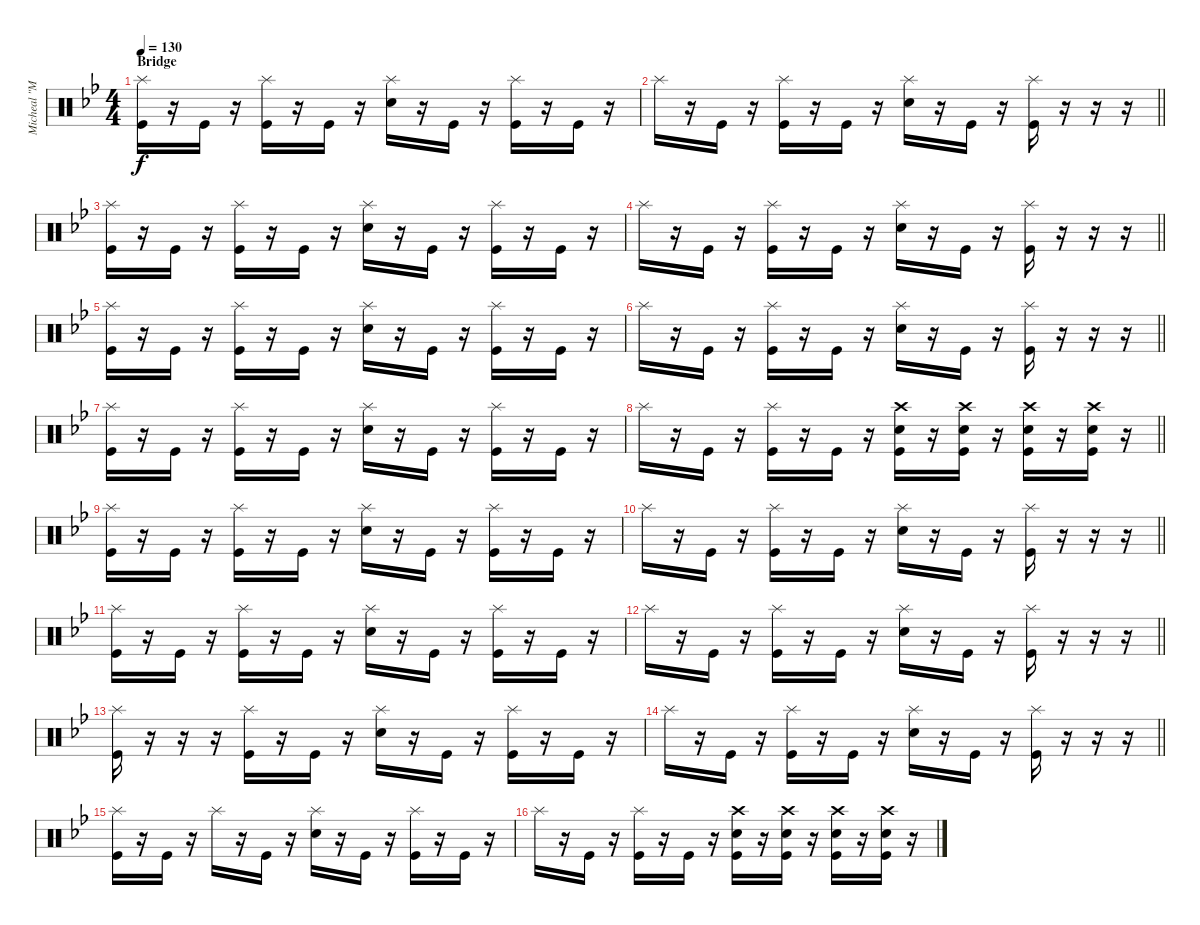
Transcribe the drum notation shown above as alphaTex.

\track ("Micheal \"Moose\" Thomas" "Micheal \"M") {instrument percussion}
\staff {score}
\articulation defaults
\ts (4 4)
\section ("" "Bridge")
\tempo 130
\clef neutral
\ks bb
("Splash (hit)" "Kick (hit)").16{dy f} r.16 "Kick (hit)".16 r.16 ("Splash (hit)" "Kick (hit)").16 r.16 "Kick (hit)".16 r.16 ("Splash (hit)" "Snare (hit) 2").16 r.16 "Kick (hit)".16 r.16 ("Splash (hit)" "Kick (hit)").16 r.16 "Kick (hit)".16 r.16 |
\barLineRight lightlight "Splash (hit)".16
r.16 "Kick (hit)".16 r.16 ("Splash (hit)" "Kick (hit)").16 r.16 "Kick (hit)".16 r.16 ("Splash (hit)" "Snare (hit) 2").16 r.16 "Kick (hit)".16 r.16 ("Splash (hit)" "Kick (hit)").16 r.16 r.16 r.16 |
("Splash (hit)" "Kick (hit)").16 r.16 "Kick (hit)".16 r.16 ("Splash (hit)" "Kick (hit)").16 r.16 "Kick (hit)".16 r.16 ("Splash (hit)" "Snare (hit) 2").16 r.16 "Kick (hit)".16 r.16 ("Splash (hit)" "Kick (hit)").16 r.16 "Kick (hit)".16 r.16 |
\barLineRight lightlight "Splash (hit)".16
r.16 "Kick (hit)".16 r.16 ("Splash (hit)" "Kick (hit)").16 r.16 "Kick (hit)".16 r.16 ("Splash (hit)" "Snare (hit) 2").16 r.16 "Kick (hit)".16 r.16 ("Splash (hit)" "Kick (hit)").16 r.16 r.16 r.16 |
("Splash (hit)" "Kick (hit)").16 r.16 "Kick (hit)".16 r.16 ("Splash (hit)" "Kick (hit)").16 r.16 "Kick (hit)".16 r.16 ("Splash (hit)" "Snare (hit) 2").16 r.16 "Kick (hit)".16 r.16 ("Splash (hit)" "Kick (hit)").16 r.16 "Kick (hit)".16 r.16 |
\barLineRight lightlight "Splash (hit)".16
r.16 "Kick (hit)".16 r.16 ("Splash (hit)" "Kick (hit)").16 r.16 "Kick (hit)".16 r.16 ("Splash (hit)" "Snare (hit) 2").16 r.16 "Kick (hit)".16 r.16 ("Splash (hit)" "Kick (hit)").16 r.16 r.16 r.16 |
("Splash (hit)" "Kick (hit)").16 r.16 "Kick (hit)".16 r.16 ("Splash (hit)" "Kick (hit)").16 r.16 "Kick (hit)".16 r.16 ("Splash (hit)" "Snare (hit) 2").16 r.16 "Kick (hit)".16 r.16 ("Splash (hit)" "Kick (hit)").16 r.16 "Kick (hit)".16 r.16 |
\barLineRight lightlight "Splash (hit)".16
r.16 "Kick (hit)".16 r.16 ("Splash (hit)" "Kick (hit)").16 r.16 "Kick (hit)".16 r.16 ("Crash high (hit)" "Snare (hit) 2" "Kick (hit)").16 r.16 ("Crash high (hit)" "Snare (hit) 2" "Kick (hit)").16 r.16 ("Crash high (hit)" "Snare (hit) 2" "Kick (hit)").16 r.16 ("Crash high (hit)" "Snare (hit) 2" "Kick (hit)").16 r.16 |
("Splash (hit)" "Kick (hit)").16 r.16 "Kick (hit)".16 r.16 ("Splash (hit)" "Kick (hit)").16 r.16 "Kick (hit)".16 r.16 ("Splash (hit)" "Snare (hit) 2").16 r.16 "Kick (hit)".16 r.16 ("Splash (hit)" "Kick (hit)").16 r.16 "Kick (hit)".16 r.16 |
\barLineRight lightlight "Splash (hit)".16
r.16 "Kick (hit)".16 r.16 ("Splash (hit)" "Kick (hit)").16 r.16 "Kick (hit)".16 r.16 ("Splash (hit)" "Snare (hit) 2").16 r.16 "Kick (hit)".16 r.16 ("Splash (hit)" "Kick (hit)").16 r.16 r.16 r.16 |
("Splash (hit)" "Kick (hit)").16 r.16 "Kick (hit)".16 r.16 ("Splash (hit)" "Kick (hit)").16 r.16 "Kick (hit)".16 r.16 ("Splash (hit)" "Snare (hit) 2").16 r.16 "Kick (hit)".16 r.16 ("Splash (hit)" "Kick (hit)").16 r.16 "Kick (hit)".16 r.16 |
\barLineRight lightlight "Splash (hit)".16
r.16 "Kick (hit)".16 r.16 ("Splash (hit)" "Kick (hit)").16 r.16 "Kick (hit)".16 r.16 ("Splash (hit)" "Snare (hit) 2").16 r.16 "Kick (hit)".16 r.16 ("Splash (hit)" "Kick (hit)").16 r.16 r.16 r.16 |
("Splash (hit)" "Kick (hit)").16 r.16 r.16 r.16 ("Splash (hit)" "Kick (hit)").16 r.16 "Kick (hit)".16 r.16 ("Splash (hit)" "Snare (hit) 2").16 r.16 "Kick (hit)".16 r.16 ("Splash (hit)" "Kick (hit)").16 r.16 "Kick (hit)".16 r.16 |
\barLineRight lightlight "Splash (hit)".16
r.16 "Kick (hit)".16 r.16 ("Splash (hit)" "Kick (hit)").16 r.16 "Kick (hit)".16 r.16 ("Splash (hit)" "Snare (hit) 2").16 r.16 "Kick (hit)".16 r.16 ("Splash (hit)" "Kick (hit)").16 r.16 r.16 r.16 |
("Splash (hit)" "Kick (hit)").16 r.16 "Kick (hit)".16 r.16 "Splash (hit)".16 r.16 "Kick (hit)".16 r.16 ("Splash (hit)" "Snare (hit) 2").16 r.16 "Kick (hit)".16 r.16 ("Splash (hit)" "Kick (hit)").16 r.16 "Kick (hit)".16 r.16 |
"Splash (hit)".16 r.16 "Kick (hit)".16 r.16 ("Splash (hit)" "Kick (hit)").16 r.16 "Kick (hit)".16 r.16 ("Crash high (hit)" "Snare (hit) 2" "Kick (hit)").16 r.16 ("Crash high (hit)" "Snare (hit) 2" "Kick (hit)").16 r.16 ("Crash high (hit)" "Snare (hit) 2" "Kick (hit)").16 r.16 ("Crash high (hit)" "Snare (hit) 2" "Kick (hit)").16 r.16
